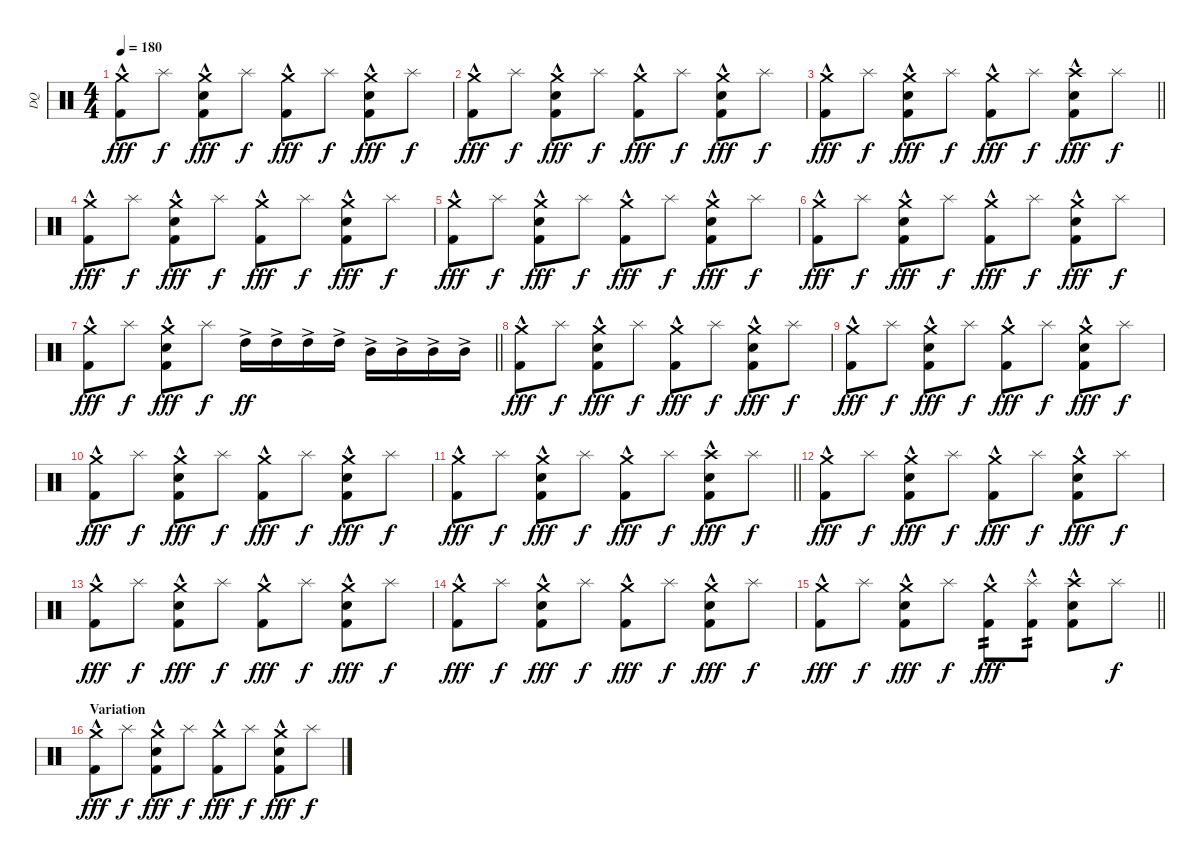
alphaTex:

\track ("DQ" "DQ") {instrument percussion}
\staff {score}
\articulation defaults
\ts (4 4)
\tempo 180
\clef neutral
\ks c
("Kick (hit) 2"{hac} "Crash medium (hit)").8{dy fff} "Splash (hit)".8{dy f} ("Kick (hit) 2"{hac} "Snare (hit) 2"{hac} "Crash medium (hit)").8{dy fff} "Splash (hit)".8{dy f} ("Kick (hit) 2"{hac} "Crash medium (hit)").8{dy fff} "Splash (hit)".8{dy f} ("Kick (hit) 2"{hac} "Snare (hit) 2"{hac} "Crash medium (hit)").8{dy fff} "Splash (hit)".8{dy f} |
("Kick (hit) 2"{hac} "Crash medium (hit)").8{dy fff} "Splash (hit)".8{dy f} ("Kick (hit) 2"{hac} "Snare (hit) 2"{hac} "Crash medium (hit)").8{dy fff} "Splash (hit)".8{dy f} ("Kick (hit) 2"{hac} "Crash medium (hit)").8{dy fff} "Splash (hit)".8{dy f} ("Kick (hit) 2"{hac} "Snare (hit) 2"{hac} "Crash medium (hit)").8{dy fff} "Splash (hit)".8{dy f} |
\barLineRight lightlight
("Kick (hit) 2"{hac} "Crash medium (hit)").8{dy fff} "Splash (hit)".8{dy f} ("Kick (hit) 2"{hac} "Snare (hit) 2"{hac} "Crash medium (hit)").8{dy fff} "Splash (hit)".8{dy f} ("Kick (hit) 2"{hac} "Crash medium (hit)").8{dy fff} "Splash (hit)".8{dy f} ("Kick (hit) 2"{hac} "Snare (hit) 2"{hac} "Crash high (hit)").8{dy fff} "Splash (hit)".8{dy f} |
\section ("" "")
("Kick (hit) 2"{hac} "Crash medium (hit)").8{dy fff volume 13} "Splash (hit)".8{dy f} ("Kick (hit) 2"{hac} "Snare (hit) 2"{hac} "Crash medium (hit)").8{dy fff} "Splash (hit)".8{dy f} ("Kick (hit) 2"{hac} "Crash medium (hit)").8{dy fff} "Splash (hit)".8{dy f} ("Kick (hit) 2"{hac} "Snare (hit) 2"{hac} "Crash medium (hit)").8{dy fff} "Splash (hit)".8{dy f} |
("Kick (hit) 2"{hac} "Crash medium (hit)").8{dy fff} "Splash (hit)".8{dy f} ("Kick (hit) 2"{hac} "Snare (hit) 2"{hac} "Crash medium (hit)").8{dy fff} "Splash (hit)".8{dy f} ("Kick (hit) 2"{hac} "Crash medium (hit)").8{dy fff} "Splash (hit)".8{dy f} ("Kick (hit) 2"{hac} "Snare (hit) 2"{hac} "Crash medium (hit)").8{dy fff} "Splash (hit)".8{dy f} |
("Kick (hit) 2"{hac} "Crash medium (hit)").8{dy fff} "Splash (hit)".8{dy f} ("Kick (hit) 2"{hac} "Snare (hit) 2"{hac} "Crash medium (hit)").8{dy fff} "Splash (hit)".8{dy f} ("Kick (hit) 2"{hac} "Crash medium (hit)").8{dy fff} "Splash (hit)".8{dy f} ("Kick (hit) 2"{hac} "Snare (hit) 2"{hac} "Crash medium (hit)").8{dy fff} "Splash (hit)".8{dy f} |
\barLineRight lightlight
("Kick (hit) 2"{hac} "Crash medium (hit)").8{dy fff} "Splash (hit)".8{dy f} ("Kick (hit) 2"{hac} "Snare (hit) 2"{hac} "Crash medium (hit)").8{dy fff} "Splash (hit)".8{dy f} "High Tom (hit)"{ac}.16{dy ff} "High Tom (hit)"{ac}.16 "High Tom (hit)"{ac}.16 "High Tom (hit)"{ac}.16 "Mid Tom (hit)"{ac}.16 "Mid Tom (hit)"{ac}.16 "Mid Tom (hit)"{ac}.16 "Mid Tom (hit)"{ac}.16 |
\section ("" "")
("Kick (hit) 2"{hac} "Crash medium (hit)").8{dy fff volume 13} "Splash (hit)".8{dy f} ("Kick (hit) 2"{hac} "Snare (hit) 2"{hac} "Crash medium (hit)").8{dy fff} "Splash (hit)".8{dy f} ("Kick (hit) 2"{hac} "Crash medium (hit)").8{dy fff} "Splash (hit)".8{dy f} ("Kick (hit) 2"{hac} "Snare (hit) 2"{hac} "Crash medium (hit)").8{dy fff} "Splash (hit)".8{dy f} |
("Kick (hit) 2"{hac} "Crash medium (hit)").8{dy fff} "Splash (hit)".8{dy f} ("Kick (hit) 2"{hac} "Snare (hit) 2"{hac} "Crash medium (hit)").8{dy fff} "Splash (hit)".8{dy f} ("Kick (hit) 2"{hac} "Crash medium (hit)").8{dy fff} "Splash (hit)".8{dy f} ("Kick (hit) 2"{hac} "Snare (hit) 2"{hac} "Crash medium (hit)").8{dy fff} "Splash (hit)".8{dy f} |
("Kick (hit) 2"{hac} "Crash medium (hit)").8{dy fff} "Splash (hit)".8{dy f} ("Kick (hit) 2"{hac} "Snare (hit) 2"{hac} "Crash medium (hit)").8{dy fff} "Splash (hit)".8{dy f} ("Kick (hit) 2"{hac} "Crash medium (hit)").8{dy fff} "Splash (hit)".8{dy f} ("Kick (hit) 2"{hac} "Snare (hit) 2"{hac} "Crash medium (hit)").8{dy fff} "Splash (hit)".8{dy f} |
\barLineRight lightlight
("Kick (hit) 2"{hac} "Crash medium (hit)").8{dy fff} "Splash (hit)".8{dy f} ("Kick (hit) 2"{hac} "Snare (hit) 2"{hac} "Crash medium (hit)").8{dy fff} "Splash (hit)".8{dy f} ("Kick (hit) 2"{hac} "Crash medium (hit)").8{dy fff} "Splash (hit)".8{dy f} ("Kick (hit) 2"{hac} "Snare (hit) 2"{hac} "Crash high (hit)").8{dy fff} "Splash (hit)".8{dy f} |
\section ("" "")
("Kick (hit) 2"{hac} "Crash medium (hit)").8{dy fff volume 13} "Splash (hit)".8{dy f} ("Kick (hit) 2"{hac} "Snare (hit) 2"{hac} "Crash medium (hit)").8{dy fff} "Splash (hit)".8{dy f} ("Kick (hit) 2"{hac} "Crash medium (hit)").8{dy fff} "Splash (hit)".8{dy f} ("Kick (hit) 2"{hac} "Snare (hit) 2"{hac} "Crash medium (hit)").8{dy fff} "Splash (hit)".8{dy f} |
("Kick (hit) 2"{hac} "Crash medium (hit)").8{dy fff} "Splash (hit)".8{dy f} ("Kick (hit) 2"{hac} "Snare (hit) 2"{hac} "Crash medium (hit)").8{dy fff} "Splash (hit)".8{dy f} ("Kick (hit) 2"{hac} "Crash medium (hit)").8{dy fff} "Splash (hit)".8{dy f} ("Kick (hit) 2"{hac} "Snare (hit) 2"{hac} "Crash medium (hit)").8{dy fff} "Splash (hit)".8{dy f} |
("Kick (hit) 2"{hac} "Crash medium (hit)").8{dy fff} "Splash (hit)".8{dy f} ("Kick (hit) 2"{hac} "Snare (hit) 2"{hac} "Crash medium (hit)").8{dy fff} "Splash (hit)".8{dy f} ("Kick (hit) 2"{hac} "Crash medium (hit)").8{dy fff} "Splash (hit)".8{dy f} ("Kick (hit) 2"{hac} "Snare (hit) 2"{hac} "Crash medium (hit)").8{dy fff} "Splash (hit)".8{dy f} |
\barLineRight lightlight
("Kick (hit) 2"{hac} "Crash medium (hit)").8{dy fff} "Splash (hit)".8{dy f} ("Kick (hit) 2"{hac} "Snare (hit) 2"{hac} "Crash medium (hit)").8{dy fff} "Splash (hit)".8{dy f} ("Kick (hit) 2"{hac} "Crash medium (hit)").8{tp 2 dy fff} ("Kick (hit) 2"{hac} "Splash (hit)").8{tp 2} ("Kick (hit) 2"{hac} "Snare (hit) 2"{hac} "Crash high (hit)").8 "Splash (hit)".8{dy f} |
\section ("" "Variation")
("Kick (hit) 2"{hac} "Crash medium (hit)").8{dy fff volume 13} "Splash (hit)".8{dy f} ("Kick (hit) 2"{hac} "Snare (hit) 2"{hac} "Crash medium (hit)").8{dy fff} "Splash (hit)".8{dy f} ("Kick (hit) 2"{hac} "Crash medium (hit)").8{dy fff} "Splash (hit)".8{dy f} ("Kick (hit) 2"{hac} "Snare (hit) 2"{hac} "Crash medium (hit)").8{dy fff} "Splash (hit)".8{dy f}
